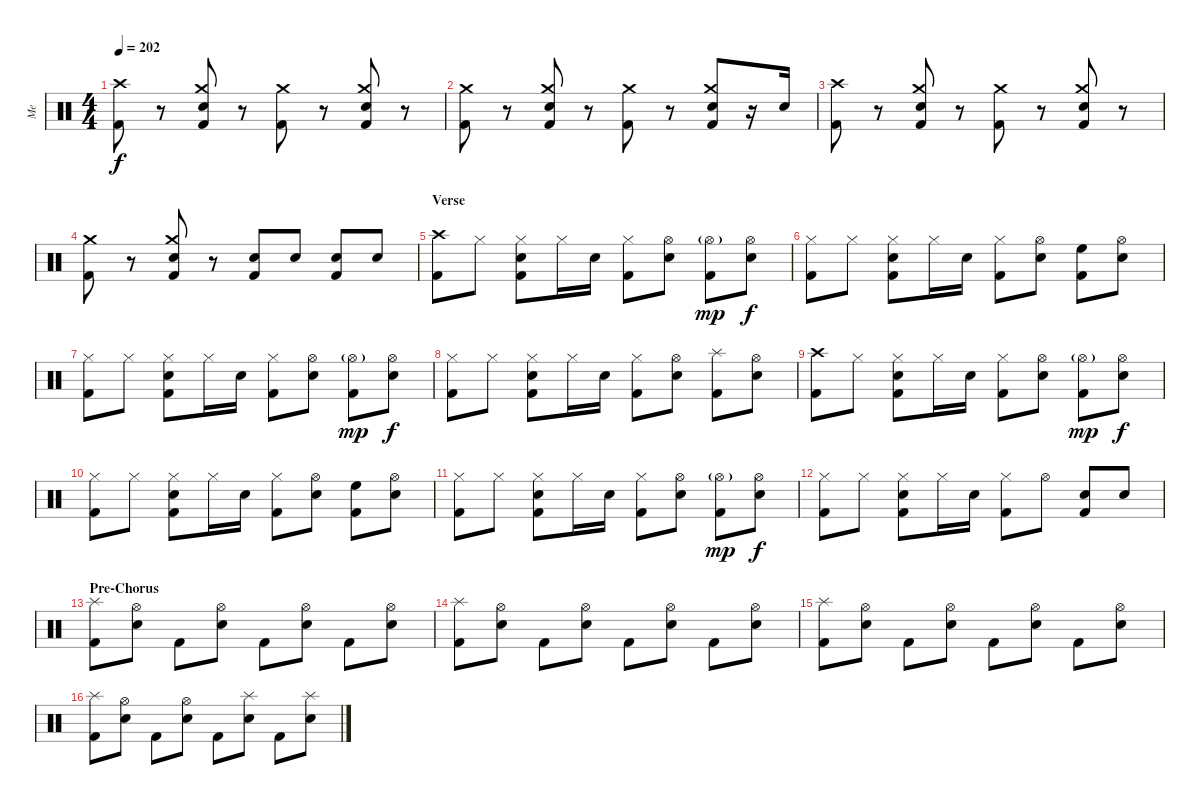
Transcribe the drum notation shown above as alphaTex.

\track ("Me" "Me") {instrument percussion}
\staff {score}
\articulation defaults
\ts (4 4)
\tempo 202
\clef neutral
\ks c
("Crash high (hit)" "Kick (hit) 2").8{dy f} r.8 ("Crash medium (hit)" "Electric Snare (hit)" "Kick (hit) 2").8 r.8 ("Crash medium (hit)" "Kick (hit) 2").8 r.8 ("Crash medium (hit)" "Electric Snare (hit)" "Kick (hit) 2").8 r.8 |
("Crash medium (hit)" "Kick (hit) 2").8 r.8 ("Crash medium (hit)" "Electric Snare (hit)" "Kick (hit) 2").8 r.8 ("Crash medium (hit)" "Kick (hit) 2").8 r.8 ("Crash medium (hit)" "Electric Snare (hit)" "Kick (hit) 2").8 r.16 "Electric Snare (hit)".16 |
("Crash high (hit)" "Kick (hit) 2").8 r.8 ("Crash medium (hit)" "Electric Snare (hit)" "Kick (hit) 2").8 r.8 ("Crash medium (hit)" "Kick (hit) 2").8 r.8 ("Crash medium (hit)" "Electric Snare (hit)" "Kick (hit) 2").8 r.8 |
("Crash medium (hit)" "Kick (hit) 2").8 r.8 ("Crash medium (hit)" "Electric Snare (hit)" "Kick (hit) 2").8 r.8 ("Electric Snare (hit)" "Kick (hit) 2").8 "Electric Snare (hit)".8 ("Electric Snare (hit)" "Kick (hit) 2").8 "Electric Snare (hit)".8 |
\section ("" "Verse")
("Crash high (hit)" "Kick (hit) 2").8 "Hi-Hat (closed)".8 ("Hi-Hat (closed)" "Electric Snare (hit)" "Kick (hit) 2").8 "Hi-Hat (closed)".16 "Electric Snare (hit)".16 ("Hi-Hat (closed)" "Kick (hit) 2").8 ("Hi-Hat (open)" "Electric Snare (hit)").8 ("Hi-Hat (open)"{g} "Kick (hit) 2").8{dy mp} ("Hi-Hat (open)" "Electric Snare (hit)").8{dy f} |
("Hi-Hat (closed)" "Kick (hit) 2").8 "Hi-Hat (closed)".8 ("Hi-Hat (closed)" "Electric Snare (hit)" "Kick (hit) 2").8 "Hi-Hat (closed)".16 "Electric Snare (hit)".16 ("Hi-Hat (closed)" "Kick (hit) 2").8 ("Hi-Hat (open)" "Electric Snare (hit)").8 ("High Floor Tom (hit)" "Kick (hit) 2").8 ("Hi-Hat (open)" "Electric Snare (hit)").8 |
("Hi-Hat (closed)" "Kick (hit) 2").8 "Hi-Hat (closed)".8 ("Hi-Hat (closed)" "Electric Snare (hit)" "Kick (hit) 2").8 "Hi-Hat (closed)".16 "Electric Snare (hit)".16 ("Hi-Hat (closed)" "Kick (hit) 2").8 ("Hi-Hat (open)" "Electric Snare (hit)").8 ("Hi-Hat (open)"{g} "Kick (hit) 2").8{dy mp} ("Hi-Hat (open)" "Electric Snare (hit)").8{dy f} |
("Hi-Hat (closed)" "Kick (hit) 2").8 "Hi-Hat (closed)".8 ("Hi-Hat (closed)" "Electric Snare (hit)" "Kick (hit) 2").8 "Hi-Hat (closed)".16 "Electric Snare (hit)".16 ("Hi-Hat (closed)" "Kick (hit) 2").8 ("Hi-Hat (open)" "Electric Snare (hit)").8 ("Splash (hit)" "Kick (hit) 2").8 ("Hi-Hat (open)" "Electric Snare (hit)").8 |
("Crash high (hit)" "Kick (hit) 2").8 "Hi-Hat (closed)".8 ("Hi-Hat (closed)" "Electric Snare (hit)" "Kick (hit) 2").8 "Hi-Hat (closed)".16 "Electric Snare (hit)".16 ("Hi-Hat (closed)" "Kick (hit) 2").8 ("Hi-Hat (open)" "Electric Snare (hit)").8 ("Hi-Hat (open)"{g} "Kick (hit) 2").8{dy mp} ("Hi-Hat (open)" "Electric Snare (hit)").8{dy f} |
("Hi-Hat (closed)" "Kick (hit) 2").8 "Hi-Hat (closed)".8 ("Hi-Hat (closed)" "Electric Snare (hit)" "Kick (hit) 2").8 "Hi-Hat (closed)".16 "Electric Snare (hit)".16 ("Hi-Hat (closed)" "Kick (hit) 2").8 ("Hi-Hat (open)" "Electric Snare (hit)").8 ("High Floor Tom (hit)" "Kick (hit) 2").8 ("Hi-Hat (open)" "Electric Snare (hit)").8 |
("Hi-Hat (closed)" "Kick (hit) 2").8 "Hi-Hat (closed)".8 ("Hi-Hat (closed)" "Electric Snare (hit)" "Kick (hit) 2").8 "Hi-Hat (closed)".16 "Electric Snare (hit)".16 ("Hi-Hat (closed)" "Kick (hit) 2").8 ("Hi-Hat (open)" "Electric Snare (hit)").8 ("Hi-Hat (open)"{g} "Kick (hit) 2").8{dy mp} ("Hi-Hat (open)" "Electric Snare (hit)").8{dy f} |
("Hi-Hat (closed)" "Kick (hit) 2").8 "Hi-Hat (closed)".8 ("Hi-Hat (closed)" "Electric Snare (hit)" "Kick (hit) 2").8 "Hi-Hat (closed)".16 "Electric Snare (hit)".16 ("Hi-Hat (closed)" "Kick (hit) 2").8 "Hi-Hat (open)".8 ("Electric Snare (hit)" "Kick (hit) 2").8 "Electric Snare (hit)".8 |
\section ("" "Pre-Chorus")
("Splash (hit)" "Kick (hit) 2").8 ("Hi-Hat (open)" "Electric Snare (hit)").8 "Kick (hit) 2".8 ("Hi-Hat (open)" "Electric Snare (hit)").8 "Kick (hit) 2".8 ("Hi-Hat (open)" "Electric Snare (hit)").8 "Kick (hit) 2".8 ("Hi-Hat (open)" "Electric Snare (hit)").8 |
("Splash (hit)" "Kick (hit) 2").8 ("Hi-Hat (open)" "Electric Snare (hit)").8 "Kick (hit) 2".8 ("Hi-Hat (open)" "Electric Snare (hit)").8 "Kick (hit) 2".8 ("Hi-Hat (open)" "Electric Snare (hit)").8 "Kick (hit) 2".8 ("Hi-Hat (open)" "Electric Snare (hit)").8 |
("Splash (hit)" "Kick (hit) 2").8 ("Hi-Hat (open)" "Electric Snare (hit)").8 "Kick (hit) 2".8 ("Hi-Hat (open)" "Electric Snare (hit)").8 "Kick (hit) 2".8 ("Hi-Hat (open)" "Electric Snare (hit)").8 "Kick (hit) 2".8 ("Hi-Hat (open)" "Electric Snare (hit)").8 |
("Splash (hit)" "Kick (hit) 2").8 ("Hi-Hat (open)" "Electric Snare (hit)").8 "Kick (hit) 2".8 ("Hi-Hat (open)" "Electric Snare (hit)").8 "Kick (hit) 2".8 ("Splash (hit)" "Electric Snare (hit)").8 "Kick (hit) 2".8 ("Splash (hit)" "Electric Snare (hit)").8
